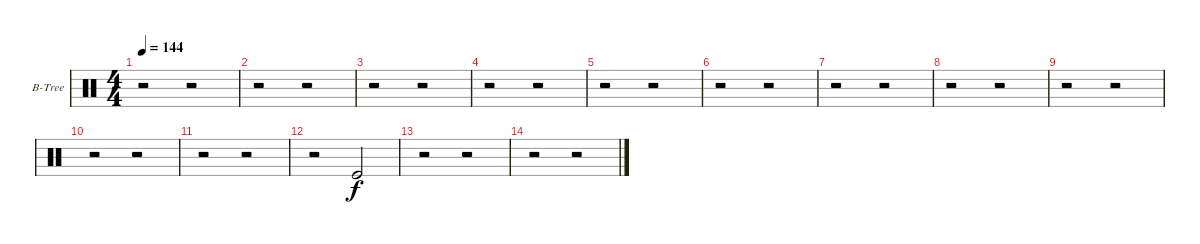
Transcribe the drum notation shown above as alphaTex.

\bracketExtendMode groupsimilarinstruments
\firstSystemTrackNameOrientation horizontal
\otherSystemsTrackNameOrientation horizontal
\track ("Bell Tree" "B-Tree") {instrument percussion}
\staff {score}
\articulation defaults
\ts (4 4)
\tempo 144
\clef neutral
\ks c
r.2{dy f} r.2 |
r.2 r.2 |
r.2 r.2 |
r.2 r.2 |
r.2 r.2 |
r.2 r.2 |
r.2 r.2 |
r.2 r.2 |
r.2 r.2 |
r.2 r.2 |
r.2 r.2 |
r.2 "Kick (hit)".2 |
r.2 r.2 |
r.2 r.2
